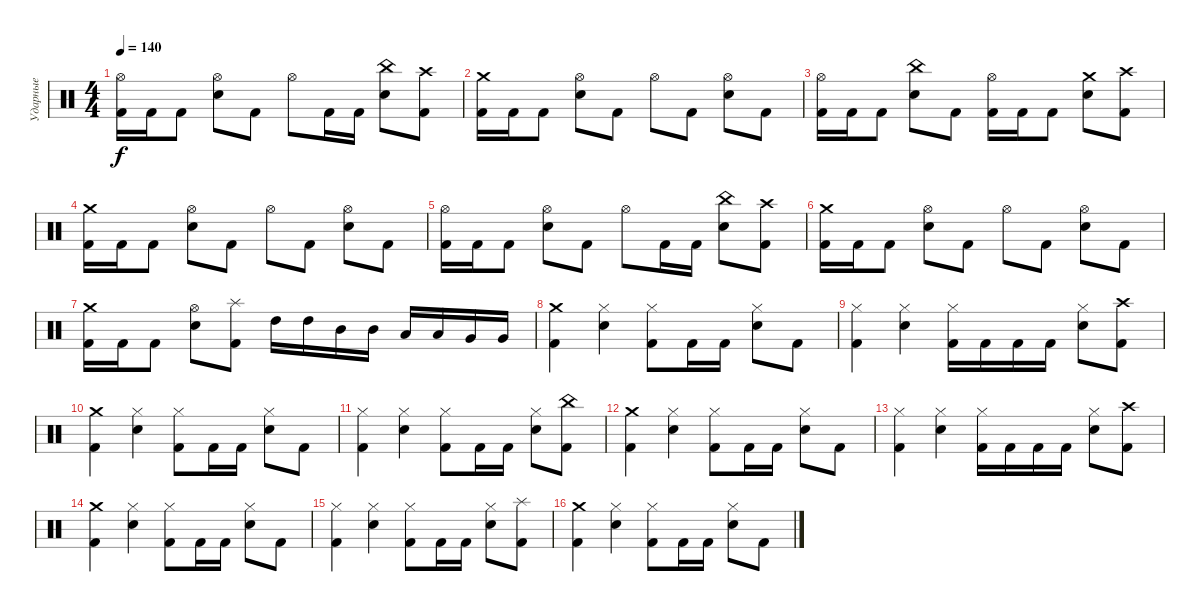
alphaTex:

\track ("Ударные" "Ударные") {instrument percussion}
\staff {score}
\articulation defaults
\ts (4 4)
\tempo 140
\clef neutral
\ks c
("Hi-Hat (open)" "Kick (hit) 2").16{dy f} "Kick (hit) 2".16 "Kick (hit) 2".8 ("Hi-Hat (open)" "Electric Snare (hit)").8 "Kick (hit) 2".8 "Hi-Hat (open)".8 "Kick (hit) 2".16 "Kick (hit) 2".16 ("China (hit)" "Electric Snare (hit)").8 ("Crash high (hit)" "Kick (hit) 2").8 |
("Crash medium (hit)" "Kick (hit) 2").16 "Kick (hit) 2".16 "Kick (hit) 2".8 ("Hi-Hat (open)" "Electric Snare (hit)").8 "Kick (hit) 2".8 "Hi-Hat (open)".8 "Kick (hit) 2".8 ("Hi-Hat (open)" "Electric Snare (hit)").8 "Kick (hit) 2".8 |
("Hi-Hat (open)" "Kick (hit) 2").16 "Kick (hit) 2".16 "Kick (hit) 2".8 ("China (hit)" "Electric Snare (hit)").8 "Kick (hit) 2".8 ("Hi-Hat (open)" "Kick (hit) 2").16 "Kick (hit) 2".16 "Kick (hit) 2".8 ("Crash medium (hit)" "Electric Snare (hit)").8 ("Crash high (hit)" "Kick (hit) 2").8 |
("Crash medium (hit)" "Kick (hit) 2").16 "Kick (hit) 2".16 "Kick (hit) 2".8 ("Hi-Hat (open)" "Electric Snare (hit)").8 "Kick (hit) 2".8 "Hi-Hat (open)".8 "Kick (hit) 2".8 ("Hi-Hat (open)" "Electric Snare (hit)").8 "Kick (hit) 2".8 |
("Hi-Hat (open)" "Kick (hit) 2").16 "Kick (hit) 2".16 "Kick (hit) 2".8 ("Hi-Hat (open)" "Electric Snare (hit)").8 "Kick (hit) 2".8 "Hi-Hat (open)".8 "Kick (hit) 2".16 "Kick (hit) 2".16 ("China (hit)" "Electric Snare (hit)").8 ("Crash high (hit)" "Kick (hit) 2").8 |
("Crash medium (hit)" "Kick (hit) 2").16 "Kick (hit) 2".16 "Kick (hit) 2".8 ("Hi-Hat (open)" "Electric Snare (hit)").8 "Kick (hit) 2".8 "Hi-Hat (open)".8 "Kick (hit) 2".8 ("Hi-Hat (open)" "Electric Snare (hit)").8 "Kick (hit) 2".8 |
("Crash medium (hit)" "Kick (hit) 2").16 "Kick (hit) 2".16 "Kick (hit) 2".8 ("Hi-Hat (open)" "Electric Snare (hit)").8 ("Splash (hit)" "Kick (hit) 2").8 "High Tom (hit)".16 "High Tom (hit)".16 "Mid Tom (hit)".16 "Mid Tom (hit)".16 "Low Tom (hit)".16 "Low Tom (hit)".16 "Very Low Tom (hit)".16 "Very Low Tom (hit)".16 |
("Crash medium (hit)" "Kick (hit) 2").4 ("Hi-Hat (closed)" "Electric Snare (hit)").4 ("Hi-Hat (closed)" "Kick (hit) 2").8 "Kick (hit) 2".16 "Kick (hit) 2".16 ("Hi-Hat (closed)" "Electric Snare (hit)").8 "Kick (hit) 2".8 |
("Hi-Hat (closed)" "Kick (hit) 2").4 ("Hi-Hat (closed)" "Electric Snare (hit)").4 ("Hi-Hat (closed)" "Kick (hit) 2").16 "Kick (hit) 2".16 "Kick (hit) 2".16 "Kick (hit) 2".16 ("Hi-Hat (closed)" "Electric Snare (hit)").8 ("Crash high (hit)" "Kick (hit) 2").8 |
("Crash medium (hit)" "Kick (hit) 2").4 ("Hi-Hat (closed)" "Electric Snare (hit)").4 ("Hi-Hat (closed)" "Kick (hit) 2").8 "Kick (hit) 2".16 "Kick (hit) 2".16 ("Hi-Hat (closed)" "Electric Snare (hit)").8 "Kick (hit) 2".8 |
("Hi-Hat (closed)" "Kick (hit) 2").4 ("Hi-Hat (closed)" "Electric Snare (hit)").4 ("Hi-Hat (closed)" "Kick (hit) 2").8 "Kick (hit) 2".16 "Kick (hit) 2".16 ("Hi-Hat (closed)" "Electric Snare (hit)").8 ("China (hit)" "Kick (hit) 2").8 |
("Crash medium (hit)" "Kick (hit) 2").4 ("Hi-Hat (closed)" "Electric Snare (hit)").4 ("Hi-Hat (closed)" "Kick (hit) 2").8 "Kick (hit) 2".16 "Kick (hit) 2".16 ("Hi-Hat (closed)" "Electric Snare (hit)").8 "Kick (hit) 2".8 |
("Hi-Hat (closed)" "Kick (hit) 2").4 ("Hi-Hat (closed)" "Electric Snare (hit)").4 ("Hi-Hat (closed)" "Kick (hit) 2").16 "Kick (hit) 2".16 "Kick (hit) 2".16 "Kick (hit) 2".16 ("Hi-Hat (closed)" "Electric Snare (hit)").8 ("Crash high (hit)" "Kick (hit) 2").8 |
("Crash medium (hit)" "Kick (hit) 2").4 ("Hi-Hat (closed)" "Electric Snare (hit)").4 ("Hi-Hat (closed)" "Kick (hit) 2").8 "Kick (hit) 2".16 "Kick (hit) 2".16 ("Hi-Hat (closed)" "Electric Snare (hit)").8 "Kick (hit) 2".8 |
("Hi-Hat (closed)" "Kick (hit) 2").4 ("Hi-Hat (closed)" "Electric Snare (hit)").4 ("Hi-Hat (closed)" "Kick (hit) 2").8 "Kick (hit) 2".16 "Kick (hit) 2".16 ("Hi-Hat (closed)" "Electric Snare (hit)").8 ("Splash (hit)" "Kick (hit) 2").8 |
("Crash medium (hit)" "Kick (hit) 2").4 ("Hi-Hat (closed)" "Electric Snare (hit)").4 ("Hi-Hat (closed)" "Kick (hit) 2").8 "Kick (hit) 2".16 "Kick (hit) 2".16 ("Hi-Hat (closed)" "Electric Snare (hit)").8 "Kick (hit) 2".8
